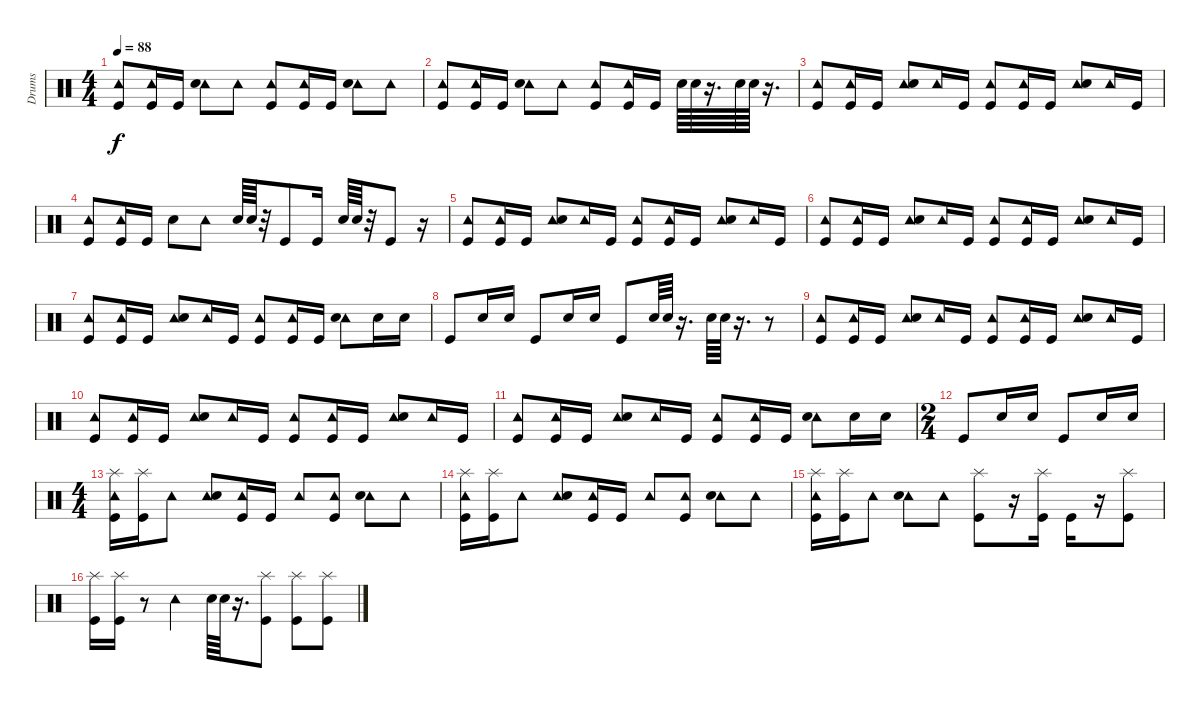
\track ("Drums" "Drums") {instrument percussion}
\staff {score}
\articulation defaults
\ts (4 4)
\tempo 88
\clef neutral
\ks c
("Tambourine (hit)" "Kick (hit)").8{dy f} ("Tambourine (hit)" "Kick (hit)").16 "Kick (hit)".16 ("Tambourine (hit)" "Snare (hit) 2").8 "Tambourine (hit)".8 ("Tambourine (hit)" "Kick (hit)").8 ("Tambourine (hit)" "Kick (hit)").16 "Kick (hit)".16 ("Tambourine (hit)" "Snare (hit) 2").8 "Tambourine (hit)".8 |
("Tambourine (hit)" "Kick (hit)").8 ("Tambourine (hit)" "Kick (hit)").16 "Kick (hit)".16 ("Tambourine (hit)" "Snare (hit) 2").8 "Tambourine (hit)".8 ("Tambourine (hit)" "Kick (hit)").8 ("Tambourine (hit)" "Kick (hit)").16 "Kick (hit)".16 "Snare (hit) 2".64 "Snare (hit) 2".64 r.16{d} "Snare (hit) 2".64 "Snare (hit) 2".64 r.16{d} |
("Tambourine (hit)" "Kick (hit)").8 ("Tambourine (hit)" "Kick (hit)").16 "Kick (hit)".16 ("Tambourine (hit)" "Snare (hit) 2").8 "Tambourine (hit)".16 "Kick (hit)".16 ("Tambourine (hit)" "Kick (hit)").8 ("Tambourine (hit)" "Kick (hit)").16 "Kick (hit)".16 ("Tambourine (hit)" "Snare (hit) 2").8 "Tambourine (hit)".16 "Kick (hit)".16 |
("Tambourine (hit)" "Kick (hit)").8 ("Tambourine (hit)" "Kick (hit)").16 "Kick (hit)".16 "Snare (hit) 2".8 "Tambourine (hit)".8 "Snare (hit) 2".64 "Snare (hit) 2".64 r.32 "Kick (hit)".8 "Kick (hit)".16 "Snare (hit) 2".64 "Snare (hit) 2".64 r.32 "Kick (hit)".8 r.16 |
("Tambourine (hit)" "Kick (hit)").8 ("Tambourine (hit)" "Kick (hit)").16 "Kick (hit)".16 ("Tambourine (hit)" "Snare (hit) 2").8 "Tambourine (hit)".16 "Kick (hit)".16 ("Tambourine (hit)" "Kick (hit)").8 ("Tambourine (hit)" "Kick (hit)").16 "Kick (hit)".16 ("Tambourine (hit)" "Snare (hit) 2").8 "Tambourine (hit)".16 "Kick (hit)".16 |
("Tambourine (hit)" "Kick (hit)").8 ("Tambourine (hit)" "Kick (hit)").16 "Kick (hit)".16 ("Tambourine (hit)" "Snare (hit) 2").8 "Tambourine (hit)".16 "Kick (hit)".16 ("Tambourine (hit)" "Kick (hit)").8 ("Tambourine (hit)" "Kick (hit)").16 "Kick (hit)".16 ("Tambourine (hit)" "Snare (hit) 2").8 "Tambourine (hit)".16 "Kick (hit)".16 |
("Tambourine (hit)" "Kick (hit)").8 ("Tambourine (hit)" "Kick (hit)").16 "Kick (hit)".16 ("Tambourine (hit)" "Snare (hit) 2").8 "Tambourine (hit)".16 "Kick (hit)".16 ("Tambourine (hit)" "Kick (hit)").8 ("Tambourine (hit)" "Kick (hit)").16 "Kick (hit)".16 ("Tambourine (hit)" "Snare (hit) 2").8 "Snare (hit) 2".16 "Snare (hit) 2".16 |
"Kick (hit)".8 "Snare (hit) 2".16 "Snare (hit) 2".16 "Kick (hit)".8 "Snare (hit) 2".16 "Snare (hit) 2".16 "Kick (hit)".8 "Snare (hit) 2".64 "Snare (hit) 2".64 r.16{d} "Snare (hit) 2".64 "Snare (hit) 2".64 r.16{d} r.8 |
("Tambourine (hit)" "Kick (hit)").8 ("Tambourine (hit)" "Kick (hit)").16 "Kick (hit)".16 ("Tambourine (hit)" "Snare (hit) 2").8 "Tambourine (hit)".16 "Kick (hit)".16 ("Tambourine (hit)" "Kick (hit)").8 ("Tambourine (hit)" "Kick (hit)").16 "Kick (hit)".16 ("Tambourine (hit)" "Snare (hit) 2").8 "Tambourine (hit)".16 "Kick (hit)".16 |
("Tambourine (hit)" "Kick (hit)").8 ("Tambourine (hit)" "Kick (hit)").16 "Kick (hit)".16 ("Tambourine (hit)" "Snare (hit) 2").8 "Tambourine (hit)".16 "Kick (hit)".16 ("Tambourine (hit)" "Kick (hit)").8 ("Tambourine (hit)" "Kick (hit)").16 "Kick (hit)".16 ("Tambourine (hit)" "Snare (hit) 2").8 "Tambourine (hit)".16 "Kick (hit)".16 |
("Tambourine (hit)" "Kick (hit)").8 ("Tambourine (hit)" "Kick (hit)").16 "Kick (hit)".16 ("Tambourine (hit)" "Snare (hit) 2").8 "Tambourine (hit)".16 "Kick (hit)".16 ("Tambourine (hit)" "Kick (hit)").8 ("Tambourine (hit)" "Kick (hit)").16 "Kick (hit)".16 ("Tambourine (hit)" "Snare (hit) 2").8 "Snare (hit) 2".16 "Snare (hit) 2".16 |
\ts (2 4)
"Kick (hit)".8 "Snare (hit) 2".16 "Snare (hit) 2".16 "Kick (hit)".8 "Snare (hit) 2".16 "Snare (hit) 2".16 |
\ts (4 4)
("Tambourine (hit)" "Kick (hit)" "Splash (hit)").16 ("Kick (hit)" "Splash (hit)").16 "Tambourine (hit)".8 ("Tambourine (hit)" "Snare (hit) 2").8 ("Tambourine (hit)" "Kick (hit)").16 "Kick (hit)".16 "Tambourine (hit)".8 ("Tambourine (hit)" "Kick (hit)").8 ("Tambourine (hit)" "Snare (hit) 2").8 "Tambourine (hit)".8 |
("Tambourine (hit)" "Kick (hit)" "Splash (hit)").16 ("Kick (hit)" "Splash (hit)").16 "Tambourine (hit)".8 ("Tambourine (hit)" "Snare (hit) 2").8 ("Tambourine (hit)" "Kick (hit)").16 "Kick (hit)".16 "Tambourine (hit)".8 ("Tambourine (hit)" "Kick (hit)").8 ("Tambourine (hit)" "Snare (hit) 2").8 "Tambourine (hit)".8 |
("Tambourine (hit)" "Kick (hit)" "Splash (hit)").16 ("Kick (hit)" "Splash (hit)").16 "Tambourine (hit)".8 ("Tambourine (hit)" "Snare (hit) 2").8 "Tambourine (hit)".8 ("Splash (hit)" "Kick (hit)").8 r.16 ("Splash (hit)" "Kick (hit)").16 "Kick (hit)".16 r.16 ("Splash (hit)" "Kick (hit)").8 |
("Kick (hit)" "Splash (hit)").16 ("Kick (hit)" "Splash (hit)").16 r.8 "Tambourine (hit)".4 "Snare (hit) 2".64 "Snare (hit) 2".64 r.16{d} ("Splash (hit)" "Kick (hit)").8 ("Splash (hit)" "Kick (hit)").8 ("Splash (hit)" "Kick (hit)").8
